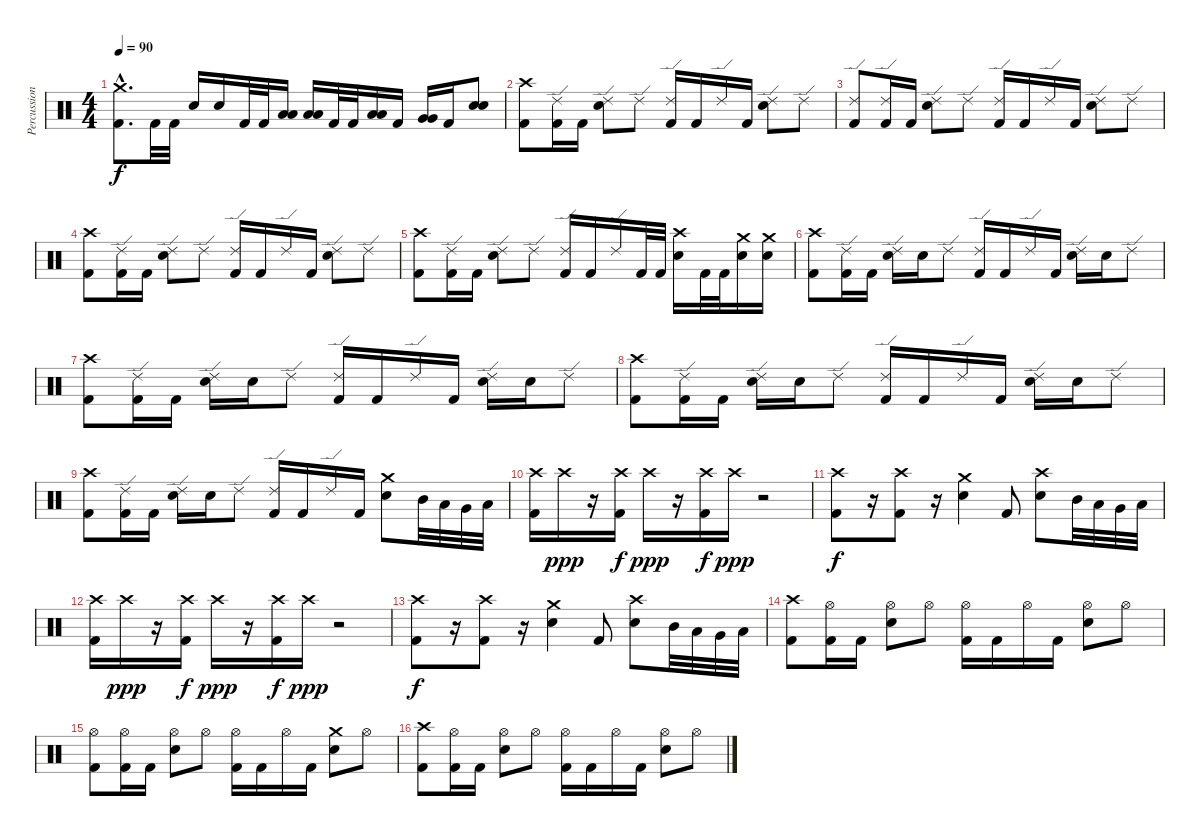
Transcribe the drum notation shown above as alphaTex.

\track ("Percussions" "Percussion") {instrument percussion}
\staff {score}
\articulation defaults
\ts (4 4)
\tempo 90
\clef neutral
\ks c
("Crash medium (hit)"{hac} "Kick (hit) 2"{hac}).8{d dy f} "Kick (hit) 2".32 "Kick (hit) 2".32 "Snare (hit) 2".16 "Snare (hit) 2".16 "Kick (hit) 2".32 "Kick (hit) 2".32 ("Low Tom (hit)" "Low Tom (hit)").16 ("Low Tom (hit)" "Low Tom (hit)").16 "Kick (hit) 2".32 "Kick (hit) 2".32 ("Low Tom (hit)" "Low Tom (hit)").16{bd 120} "Kick (hit) 2".16 ("Very Low Tom (hit)" "Very Low Tom (hit)").16{bd 120} "Kick (hit) 2".16 ("Snare (hit) 2" "Snare (hit) 2").8{bd 120} |
("Crash high (hit)" "Kick (hit) 2").8 ("Ride (edge) 2" "Kick (hit) 2").16 "Kick (hit) 2".16 ("Ride (edge) 2" "Snare (hit) 2").8 "Ride (edge) 2".8 ("Ride (edge) 2" "Kick (hit) 2").16 "Kick (hit) 2".16 "Ride (edge) 2".16 "Kick (hit) 2".16 ("Ride (edge) 2" "Snare (hit) 2").8 "Ride (edge) 2".8 |
("Ride (edge) 2" "Kick (hit) 2").8 ("Ride (edge) 2" "Kick (hit) 2").16 "Kick (hit) 2".16 ("Ride (edge) 2" "Snare (hit) 2").8 "Ride (edge) 2".8 ("Ride (edge) 2" "Kick (hit) 2").16 "Kick (hit) 2".16 "Ride (edge) 2".16 "Kick (hit) 2".16 ("Ride (edge) 2" "Snare (hit) 2").8 "Ride (edge) 2".8 |
("Crash high (hit)" "Kick (hit) 2").8 ("Ride (edge) 2" "Kick (hit) 2").16 "Kick (hit) 2".16 ("Ride (edge) 2" "Snare (hit) 2").8 "Ride (edge) 2".8 ("Ride (edge) 2" "Kick (hit) 2").16 "Kick (hit) 2".16 "Ride (edge) 2".16 "Kick (hit) 2".16 ("Ride (edge) 2" "Snare (hit) 2").8 "Ride (edge) 2".8 |
("Crash high (hit)" "Kick (hit) 2").8 ("Ride (edge) 2" "Kick (hit) 2").16 "Kick (hit) 2".16 ("Ride (edge) 2" "Snare (hit) 2").8 "Ride (edge) 2".8 ("Ride (edge) 2" "Kick (hit) 2").16 "Kick (hit) 2".16 "Ride (edge) 2".16 "Kick (hit) 2".32 "Kick (hit) 2".32 ("Crash high (hit)" "Snare (hit) 2").16 "Kick (hit) 2".32 "Kick (hit) 2".32 ("Crash medium (hit)" "Snare (hit) 2").16 ("Crash medium (hit)" "Snare (hit) 2").16 |
("Crash high (hit)" "Kick (hit) 2").8 ("Ride (edge) 2" "Kick (hit) 2").16 "Kick (hit) 2".16 ("Ride (edge) 2" "Snare (hit) 2").16 "Snare (hit) 2".16 "Ride (edge) 2".8 ("Ride (edge) 2" "Kick (hit) 2").16 "Kick (hit) 2".16 "Ride (edge) 2".16 "Kick (hit) 2".16 ("Ride (edge) 2" "Snare (hit) 2").16 "Snare (hit) 2".16 "Ride (edge) 2".8 |
("Crash high (hit)" "Kick (hit) 2").8 ("Ride (edge) 2" "Kick (hit) 2").16 "Kick (hit) 2".16 ("Ride (edge) 2" "Snare (hit) 2").16 "Snare (hit) 2".16 "Ride (edge) 2".8 ("Ride (edge) 2" "Kick (hit) 2").16 "Kick (hit) 2".16 "Ride (edge) 2".16 "Kick (hit) 2".16 ("Ride (edge) 2" "Snare (hit) 2").16 "Snare (hit) 2".16 "Ride (edge) 2".8 |
("Crash high (hit)" "Kick (hit) 2").8 ("Ride (edge) 2" "Kick (hit) 2").16 "Kick (hit) 2".16 ("Ride (edge) 2" "Snare (hit) 2").16 "Snare (hit) 2".16 "Ride (edge) 2".8 ("Ride (edge) 2" "Kick (hit) 2").16 "Kick (hit) 2".16 "Ride (edge) 2".16 "Kick (hit) 2".16 ("Ride (edge) 2" "Snare (hit) 2").16 "Snare (hit) 2".16 "Ride (edge) 2".8 |
("Crash high (hit)" "Kick (hit) 2").8 ("Ride (edge) 2" "Kick (hit) 2").16 "Kick (hit) 2".16 ("Ride (edge) 2" "Snare (hit) 2").16 "Snare (hit) 2".16 "Ride (edge) 2".8 ("Ride (edge) 2" "Kick (hit) 2").16 "Kick (hit) 2".16 "Ride (edge) 2".16 "Kick (hit) 2".16 ("Crash medium (hit)" "Snare (hit) 2").8 "Mid Tom (hit)".32 "Low Tom (hit)".32 "Very Low Tom (hit)".32 "Low Floor Tom (hit)".32 |
("Crash high (hit)" "Kick (hit) 2").16 "Crash high (hit)".16{dy ppp} r.16 ("Crash high (hit)" "Kick (hit) 2").16{dy f} "Crash high (hit)".16{dy ppp} r.16 ("Crash high (hit)" "Kick (hit) 2").16{dy f} "Crash high (hit)".16{dy ppp} r.2 |
("Crash high (hit)" "Kick (hit) 2").8{dy f} r.16 ("Crash high (hit)" "Kick (hit) 2").8 r.16 ("Crash medium (hit)" "Snare (hit) 2").4 "Kick (hit) 2".8 ("Crash high (hit)" "Snare (hit) 2").8 "Mid Tom (hit)".32 "Low Tom (hit)".32 "Very Low Tom (hit)".32 "Low Floor Tom (hit)".32 |
("Crash high (hit)" "Kick (hit) 2").16 "Crash high (hit)".16{dy ppp} r.16 ("Crash high (hit)" "Kick (hit) 2").16{dy f} "Crash high (hit)".16{dy ppp} r.16 ("Crash high (hit)" "Kick (hit) 2").16{dy f} "Crash high (hit)".16{dy ppp} r.2 |
("Crash high (hit)" "Kick (hit) 2").8{dy f} r.16 ("Crash high (hit)" "Kick (hit) 2").8 r.16 ("Crash medium (hit)" "Snare (hit) 2").4 "Kick (hit) 2".8 ("Crash high (hit)" "Snare (hit) 2").8 "Mid Tom (hit)".32 "Low Tom (hit)".32 "Very Low Tom (hit)".32 "Low Floor Tom (hit)".32 |
("Crash high (hit)" "Kick (hit) 2").8 ("Hi-Hat (open)" "Kick (hit) 2").16 "Kick (hit) 2".16 ("Hi-Hat (open)" "Snare (hit) 2").8 "Hi-Hat (open)".8 ("Hi-Hat (open)" "Kick (hit) 2").16 "Kick (hit) 2".16 "Hi-Hat (open)".16 "Kick (hit) 2".16 ("Hi-Hat (open)" "Snare (hit) 2").8 "Hi-Hat (open)".8 |
("Hi-Hat (open)" "Kick (hit) 2").8 ("Hi-Hat (open)" "Kick (hit) 2").16 "Kick (hit) 2".16 ("Hi-Hat (open)" "Snare (hit) 2").8 "Hi-Hat (open)".8 ("Hi-Hat (open)" "Kick (hit) 2").16 "Kick (hit) 2".16 "Hi-Hat (open)".16 "Kick (hit) 2".16 ("Crash medium (hit)" "Snare (hit) 2").8 "Hi-Hat (open)".8 |
("Crash high (hit)" "Kick (hit) 2").8 ("Hi-Hat (open)" "Kick (hit) 2").16 "Kick (hit) 2".16 ("Hi-Hat (open)" "Snare (hit) 2").8 "Hi-Hat (open)".8 ("Hi-Hat (open)" "Kick (hit) 2").16 "Kick (hit) 2".16 "Hi-Hat (open)".16 "Kick (hit) 2".16 ("Hi-Hat (open)" "Snare (hit) 2").8 "Hi-Hat (open)".8
